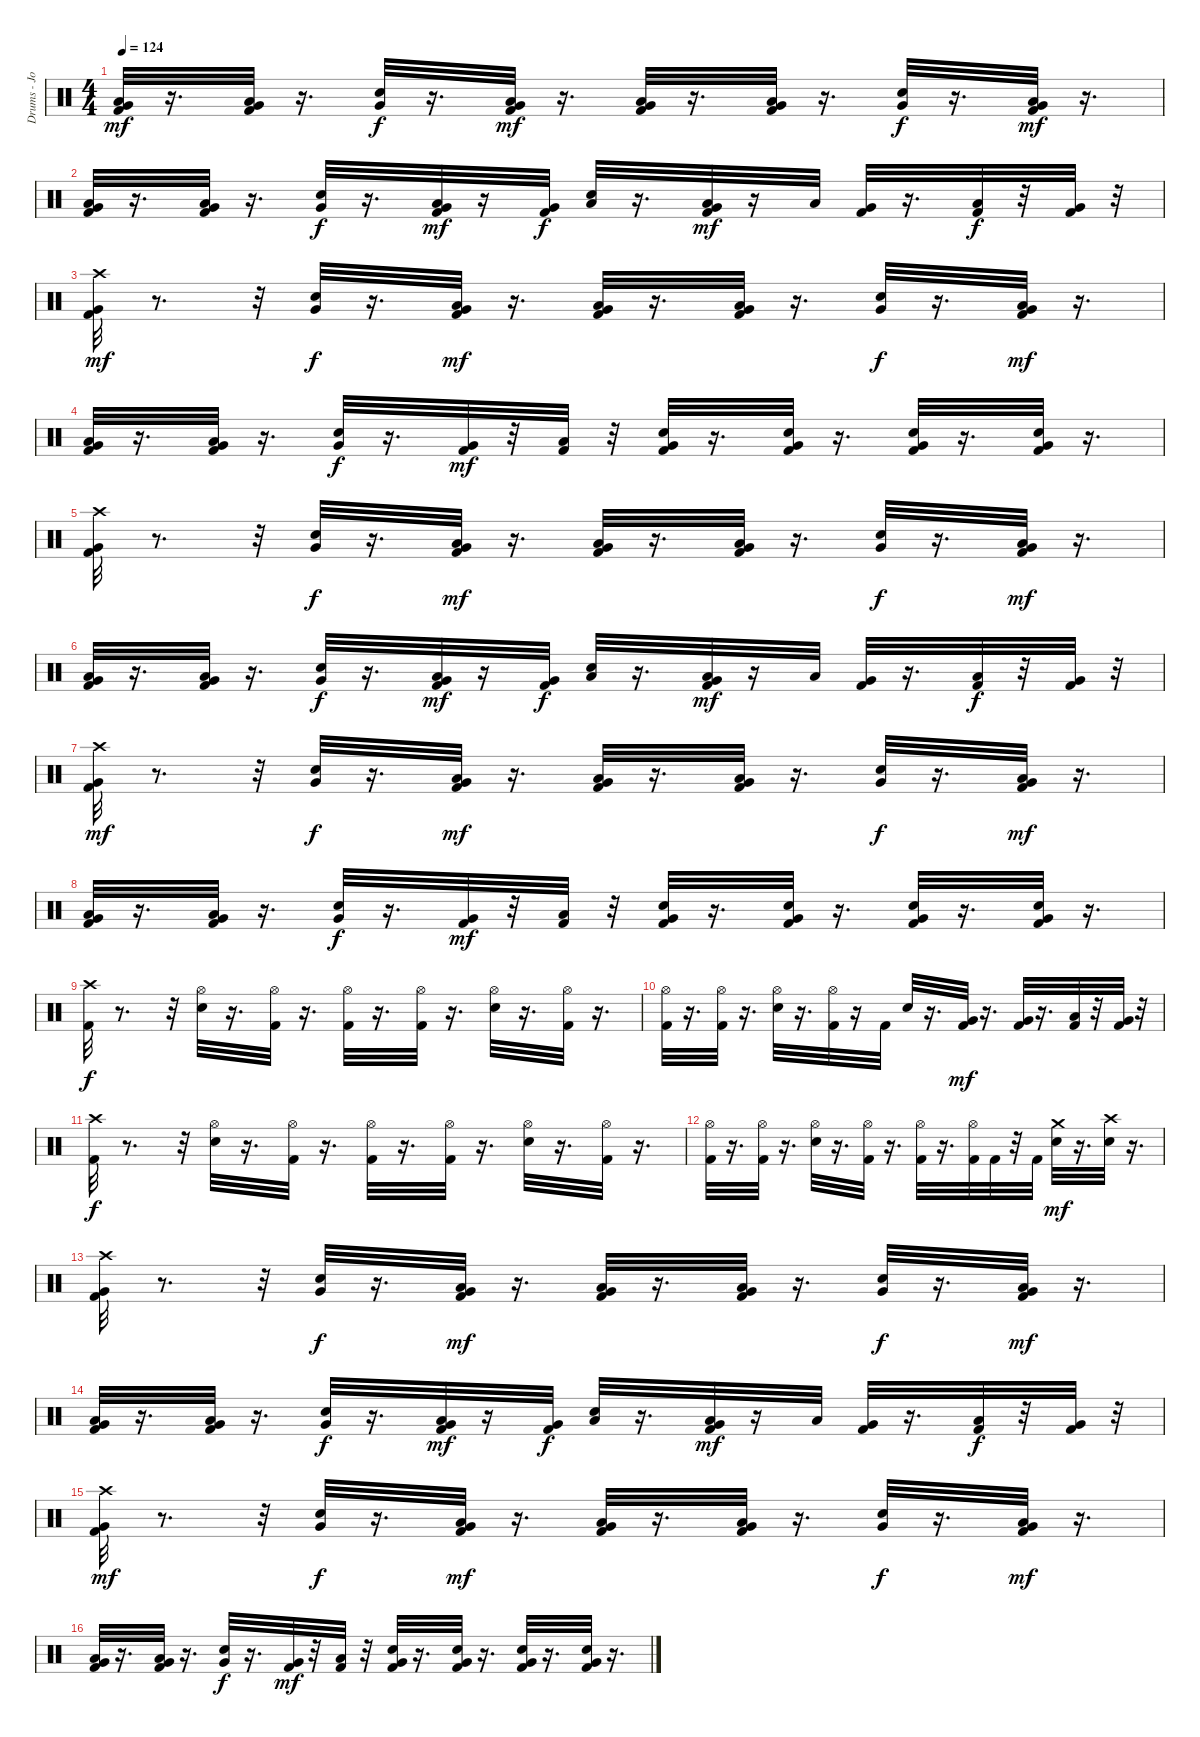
\track ("Drums - John dette" "Drums - Jo") {instrument percussion}
\staff {score}
\articulation defaults
\ts (4 4)
\tempo 124
\clef neutral
\ks c
("Kick (hit) 2" "Low Floor Tom (hit)" "Very Low Tom (hit)").32{dy mf} r.16{d} ("Kick (hit) 2" "Low Floor Tom (hit)" "Very Low Tom (hit)").32 r.16{d} ("Snare (hit) 2" "Very Low Tom (hit)").32{dy f} r.16{d} ("Kick (hit) 2" "Low Floor Tom (hit)" "Very Low Tom (hit)").32{dy mf} r.16{d} ("Kick (hit) 2" "Low Floor Tom (hit)" "Very Low Tom (hit)").32 r.16{d} ("Kick (hit) 2" "Low Floor Tom (hit)" "Very Low Tom (hit)").32 r.16{d} ("Snare (hit) 2" "Very Low Tom (hit)").32{dy f} r.16{d} ("Kick (hit) 2" "Low Floor Tom (hit)" "Very Low Tom (hit)").32{dy mf} r.16{d} |
("Kick (hit) 2" "Low Floor Tom (hit)" "Very Low Tom (hit)").32 r.16{d} ("Kick (hit) 2" "Low Floor Tom (hit)" "Very Low Tom (hit)").32 r.16{d} ("Snare (hit) 2" "Very Low Tom (hit)").32{dy f} r.16{d} ("Kick (hit) 2" "Low Floor Tom (hit)" "Very Low Tom (hit)").32{dy mf} r.16 ("Kick (hit) 2" "Very Low Tom (hit)").32{dy f} ("Snare (hit) 2" "Low Floor Tom (hit)").32 r.16{d} ("Kick (hit) 2" "Low Floor Tom (hit)" "Very Low Tom (hit)").32{dy mf} r.16 "Low Tom (hit)".32 ("Kick (hit) 2" "Very Low Tom (hit)").32 r.16{d} ("Kick (hit) 2" "Low Tom (hit)").32{dy f} r.32 ("Kick (hit) 2" "Very Low Tom (hit)").32 r.32 |
("Kick (hit) 2" "Very Low Tom (hit)" "Crash high (hit)").32{dy mf} r.8{d} r.32 ("Snare (hit) 2" "Very Low Tom (hit)").32{dy f} r.16{d} ("Kick (hit) 2" "Low Floor Tom (hit)" "Very Low Tom (hit)").32{dy mf} r.16{d} ("Kick (hit) 2" "Low Floor Tom (hit)" "Very Low Tom (hit)").32 r.16{d} ("Kick (hit) 2" "Low Floor Tom (hit)" "Very Low Tom (hit)").32 r.16{d} ("Snare (hit) 2" "Very Low Tom (hit)").32{dy f} r.16{d} ("Kick (hit) 2" "Low Floor Tom (hit)" "Very Low Tom (hit)").32{dy mf} r.16{d} |
("Kick (hit) 2" "Low Floor Tom (hit)" "Very Low Tom (hit)").32 r.16{d} ("Kick (hit) 2" "Low Floor Tom (hit)" "Very Low Tom (hit)").32 r.16{d} ("Snare (hit) 2" "Very Low Tom (hit)").32{dy f} r.16{d} ("Kick (hit) 2" "Very Low Tom (hit)").32{dy mf} r.32 ("Kick (hit) 2" "Low Floor Tom (hit)").32 r.32 ("Kick (hit) 2" "Snare (hit) 2" "Very Low Tom (hit)").32 r.16{d} ("Kick (hit) 2" "Snare (hit) 2" "Very Low Tom (hit)").32 r.16{d} ("Kick (hit) 2" "Snare (hit) 2" "Very Low Tom (hit)").32 r.16{d} ("Kick (hit) 2" "Snare (hit) 2" "Very Low Tom (hit)").32 r.16{d} |
("Kick (hit) 2" "Very Low Tom (hit)" "Crash high (hit)").32 r.8{d} r.32 ("Snare (hit) 2" "Very Low Tom (hit)").32{dy f} r.16{d} ("Kick (hit) 2" "Low Floor Tom (hit)" "Very Low Tom (hit)").32{dy mf} r.16{d} ("Kick (hit) 2" "Low Floor Tom (hit)" "Very Low Tom (hit)").32 r.16{d} ("Kick (hit) 2" "Low Floor Tom (hit)" "Very Low Tom (hit)").32 r.16{d} ("Snare (hit) 2" "Very Low Tom (hit)").32{dy f} r.16{d} ("Kick (hit) 2" "Low Floor Tom (hit)" "Very Low Tom (hit)").32{dy mf} r.16{d} |
("Kick (hit) 2" "Low Floor Tom (hit)" "Very Low Tom (hit)").32 r.16{d} ("Kick (hit) 2" "Low Floor Tom (hit)" "Very Low Tom (hit)").32 r.16{d} ("Snare (hit) 2" "Very Low Tom (hit)").32{dy f} r.16{d} ("Kick (hit) 2" "Low Floor Tom (hit)" "Very Low Tom (hit)").32{dy mf} r.16 ("Kick (hit) 2" "Very Low Tom (hit)").32{dy f} ("Snare (hit) 2" "Low Floor Tom (hit)").32 r.16{d} ("Kick (hit) 2" "Low Floor Tom (hit)" "Very Low Tom (hit)").32{dy mf} r.16 "Low Tom (hit)".32 ("Kick (hit) 2" "Very Low Tom (hit)").32 r.16{d} ("Kick (hit) 2" "Low Tom (hit)").32{dy f} r.32 ("Kick (hit) 2" "Very Low Tom (hit)").32 r.32 |
("Kick (hit) 2" "Very Low Tom (hit)" "Crash high (hit)").32{dy mf} r.8{d} r.32 ("Snare (hit) 2" "Very Low Tom (hit)").32{dy f} r.16{d} ("Kick (hit) 2" "Low Floor Tom (hit)" "Very Low Tom (hit)").32{dy mf} r.16{d} ("Kick (hit) 2" "Low Floor Tom (hit)" "Very Low Tom (hit)").32 r.16{d} ("Kick (hit) 2" "Low Floor Tom (hit)" "Very Low Tom (hit)").32 r.16{d} ("Snare (hit) 2" "Very Low Tom (hit)").32{dy f} r.16{d} ("Kick (hit) 2" "Low Floor Tom (hit)" "Very Low Tom (hit)").32{dy mf} r.16{d} |
("Kick (hit) 2" "Low Floor Tom (hit)" "Very Low Tom (hit)").32 r.16{d} ("Kick (hit) 2" "Low Floor Tom (hit)" "Very Low Tom (hit)").32 r.16{d} ("Snare (hit) 2" "Very Low Tom (hit)").32{dy f} r.16{d} ("Kick (hit) 2" "Very Low Tom (hit)").32{dy mf} r.32 ("Kick (hit) 2" "Low Floor Tom (hit)").32 r.32 ("Kick (hit) 2" "Snare (hit) 2" "Very Low Tom (hit)").32 r.16{d} ("Kick (hit) 2" "Snare (hit) 2" "Very Low Tom (hit)").32 r.16{d} ("Kick (hit) 2" "Snare (hit) 2" "Very Low Tom (hit)").32 r.16{d} ("Kick (hit) 2" "Snare (hit) 2" "Very Low Tom (hit)").32 r.16{d} |
("Kick (hit) 2" "Crash high (hit)").32{dy f} r.8{d} r.32 ("Snare (hit) 2" "Hi-Hat (open)").32 r.16{d} ("Kick (hit) 2" "Hi-Hat (open)").32 r.16{d} ("Kick (hit) 2" "Hi-Hat (open)").32 r.16{d} ("Kick (hit) 2" "Hi-Hat (open)").32 r.16{d} ("Snare (hit) 2" "Hi-Hat (open)").32 r.16{d} ("Kick (hit) 2" "Hi-Hat (open)").32 r.16{d} |
("Kick (hit) 2" "Hi-Hat (open)").32 r.16{d} ("Kick (hit) 2" "Hi-Hat (open)").32 r.16{d} ("Snare (hit) 2" "Hi-Hat (open)").32 r.16{d} ("Kick (hit) 2" "Hi-Hat (open)").32 r.16 "Kick (hit) 2".32 "Snare (hit) 2".32 r.16{d} ("Kick (hit) 2" "Very Low Tom (hit)").32{dy mf} r.16{d} ("Kick (hit) 2" "Very Low Tom (hit)").32 r.16{d} ("Kick (hit) 2" "Low Tom (hit)").32 r.32 ("Kick (hit) 2" "Very Low Tom (hit)").32 r.32 |
("Kick (hit) 2" "Crash high (hit)").32{dy f} r.8{d} r.32 ("Snare (hit) 2" "Hi-Hat (open)").32 r.16{d} ("Kick (hit) 2" "Hi-Hat (open)").32 r.16{d} ("Kick (hit) 2" "Hi-Hat (open)").32 r.16{d} ("Kick (hit) 2" "Hi-Hat (open)").32 r.16{d} ("Snare (hit) 2" "Hi-Hat (open)").32 r.16{d} ("Kick (hit) 2" "Hi-Hat (open)").32 r.16{d} |
("Kick (hit) 2" "Hi-Hat (open)").32 r.16{d} ("Kick (hit) 2" "Hi-Hat (open)").32 r.16{d} ("Snare (hit) 2" "Hi-Hat (open)").32 r.16{d} ("Kick (hit) 2" "Hi-Hat (open)").32 r.16{d} ("Kick (hit) 2" "Hi-Hat (open)").32 r.16{d} ("Kick (hit) 2" "Hi-Hat (open)").32 "Kick (hit) 2".32 r.32 "Kick (hit) 2".32 ("Snare (hit) 2" "Crash medium (hit)").32{dy mf} r.16{d} ("Snare (hit) 2" "Crash high (hit)").32 r.16{d} |
("Kick (hit) 2" "Very Low Tom (hit)" "Crash high (hit)").32 r.8{d} r.32 ("Snare (hit) 2" "Very Low Tom (hit)").32{dy f} r.16{d} ("Kick (hit) 2" "Low Floor Tom (hit)" "Very Low Tom (hit)").32{dy mf} r.16{d} ("Kick (hit) 2" "Low Floor Tom (hit)" "Very Low Tom (hit)").32 r.16{d} ("Kick (hit) 2" "Low Floor Tom (hit)" "Very Low Tom (hit)").32 r.16{d} ("Snare (hit) 2" "Very Low Tom (hit)").32{dy f} r.16{d} ("Kick (hit) 2" "Low Floor Tom (hit)" "Very Low Tom (hit)").32{dy mf} r.16{d} |
("Kick (hit) 2" "Low Floor Tom (hit)" "Very Low Tom (hit)").32 r.16{d} ("Kick (hit) 2" "Low Floor Tom (hit)" "Very Low Tom (hit)").32 r.16{d} ("Snare (hit) 2" "Very Low Tom (hit)").32{dy f} r.16{d} ("Kick (hit) 2" "Low Floor Tom (hit)" "Very Low Tom (hit)").32{dy mf} r.16 ("Kick (hit) 2" "Very Low Tom (hit)").32{dy f} ("Snare (hit) 2" "Low Floor Tom (hit)").32 r.16{d} ("Kick (hit) 2" "Low Floor Tom (hit)" "Very Low Tom (hit)").32{dy mf} r.16 "Low Tom (hit)".32 ("Kick (hit) 2" "Very Low Tom (hit)").32 r.16{d} ("Kick (hit) 2" "Low Tom (hit)").32{dy f} r.32 ("Kick (hit) 2" "Very Low Tom (hit)").32 r.32 |
("Kick (hit) 2" "Very Low Tom (hit)" "Crash high (hit)").32{dy mf} r.8{d} r.32 ("Snare (hit) 2" "Very Low Tom (hit)").32{dy f} r.16{d} ("Kick (hit) 2" "Low Floor Tom (hit)" "Very Low Tom (hit)").32{dy mf} r.16{d} ("Kick (hit) 2" "Low Floor Tom (hit)" "Very Low Tom (hit)").32 r.16{d} ("Kick (hit) 2" "Low Floor Tom (hit)" "Very Low Tom (hit)").32 r.16{d} ("Snare (hit) 2" "Very Low Tom (hit)").32{dy f} r.16{d} ("Kick (hit) 2" "Low Floor Tom (hit)" "Very Low Tom (hit)").32{dy mf} r.16{d} |
("Kick (hit) 2" "Low Floor Tom (hit)" "Very Low Tom (hit)").32 r.16{d} ("Kick (hit) 2" "Low Floor Tom (hit)" "Very Low Tom (hit)").32 r.16{d} ("Snare (hit) 2" "Very Low Tom (hit)").32{dy f} r.16{d} ("Kick (hit) 2" "Very Low Tom (hit)").32{dy mf} r.32 ("Kick (hit) 2" "Low Floor Tom (hit)").32 r.32 ("Kick (hit) 2" "Snare (hit) 2" "Very Low Tom (hit)").32 r.16{d} ("Kick (hit) 2" "Snare (hit) 2" "Very Low Tom (hit)").32 r.16{d} ("Kick (hit) 2" "Snare (hit) 2" "Very Low Tom (hit)").32 r.16{d} ("Kick (hit) 2" "Snare (hit) 2" "Very Low Tom (hit)").32 r.16{d}
